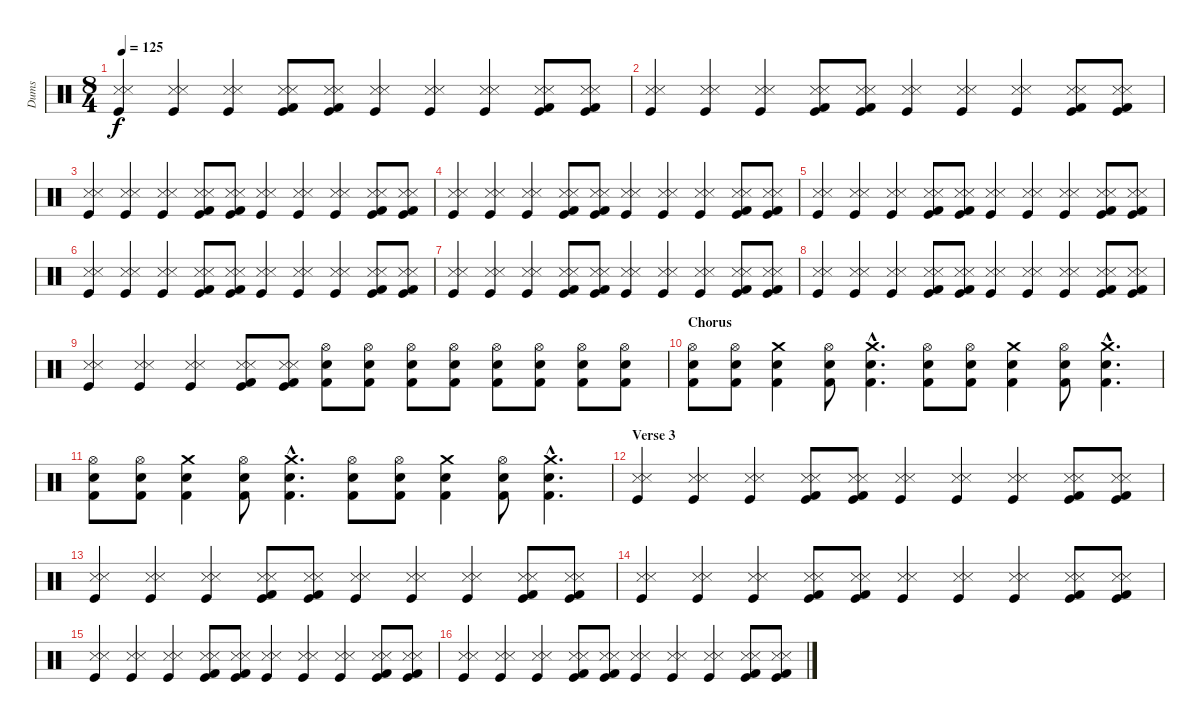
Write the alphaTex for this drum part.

\track ("Dums" "Dums") {instrument percussion}
\staff {score}
\articulation defaults
\ts (8 4)
\tempo 125
\clef neutral
\ks c
("Snare (side stick) 3" "Metronome (hit)" "Kick (hit)").4{dy f} ("Snare (side stick) 3" "Metronome (hit)" "Kick (hit)").4 ("Snare (side stick) 3" "Metronome (hit)" "Kick (hit)").4 ("Snare (side stick) 3" "Metronome (hit)" "Kick (hit)" "Kick (hit) 2").8 ("Snare (side stick) 3" "Metronome (hit)" "Kick (hit)" "Kick (hit) 2").8 ("Snare (side stick) 3" "Metronome (hit)" "Kick (hit)").4 ("Snare (side stick) 3" "Metronome (hit)" "Kick (hit)").4 ("Snare (side stick) 3" "Metronome (hit)" "Kick (hit)").4 ("Snare (side stick) 3" "Metronome (hit)" "Kick (hit)" "Kick (hit) 2").8 ("Snare (side stick) 3" "Metronome (hit)" "Kick (hit)" "Kick (hit) 2").8 |
("Snare (side stick) 3" "Metronome (hit)" "Kick (hit)").4 ("Snare (side stick) 3" "Metronome (hit)" "Kick (hit)").4 ("Snare (side stick) 3" "Metronome (hit)" "Kick (hit)").4 ("Snare (side stick) 3" "Metronome (hit)" "Kick (hit)" "Kick (hit) 2").8 ("Snare (side stick) 3" "Metronome (hit)" "Kick (hit)" "Kick (hit) 2").8 ("Snare (side stick) 3" "Metronome (hit)" "Kick (hit)").4 ("Snare (side stick) 3" "Metronome (hit)" "Kick (hit)").4 ("Snare (side stick) 3" "Metronome (hit)" "Kick (hit)").4 ("Snare (side stick) 3" "Metronome (hit)" "Kick (hit)" "Kick (hit) 2").8 ("Snare (side stick) 3" "Metronome (hit)" "Kick (hit)" "Kick (hit) 2").8 |
("Snare (side stick) 3" "Metronome (hit)" "Kick (hit)").4 ("Snare (side stick) 3" "Metronome (hit)" "Kick (hit)").4 ("Snare (side stick) 3" "Metronome (hit)" "Kick (hit)").4 ("Snare (side stick) 3" "Metronome (hit)" "Kick (hit)" "Kick (hit) 2").8 ("Snare (side stick) 3" "Metronome (hit)" "Kick (hit)" "Kick (hit) 2").8 ("Snare (side stick) 3" "Metronome (hit)" "Kick (hit)").4 ("Snare (side stick) 3" "Metronome (hit)" "Kick (hit)").4 ("Snare (side stick) 3" "Metronome (hit)" "Kick (hit)").4 ("Snare (side stick) 3" "Metronome (hit)" "Kick (hit)" "Kick (hit) 2").8 ("Snare (side stick) 3" "Metronome (hit)" "Kick (hit)" "Kick (hit) 2").8 |
("Snare (side stick) 3" "Metronome (hit)" "Kick (hit)").4 ("Snare (side stick) 3" "Metronome (hit)" "Kick (hit)").4 ("Snare (side stick) 3" "Metronome (hit)" "Kick (hit)").4 ("Snare (side stick) 3" "Metronome (hit)" "Kick (hit)" "Kick (hit) 2").8 ("Snare (side stick) 3" "Metronome (hit)" "Kick (hit)" "Kick (hit) 2").8 ("Snare (side stick) 3" "Metronome (hit)" "Kick (hit)").4 ("Snare (side stick) 3" "Metronome (hit)" "Kick (hit)").4 ("Snare (side stick) 3" "Metronome (hit)" "Kick (hit)").4 ("Snare (side stick) 3" "Metronome (hit)" "Kick (hit)" "Kick (hit) 2").8 ("Snare (side stick) 3" "Metronome (hit)" "Kick (hit)" "Kick (hit) 2").8 |
("Snare (side stick) 3" "Metronome (hit)" "Kick (hit)").4 ("Snare (side stick) 3" "Metronome (hit)" "Kick (hit)").4 ("Snare (side stick) 3" "Metronome (hit)" "Kick (hit)").4 ("Snare (side stick) 3" "Metronome (hit)" "Kick (hit)" "Kick (hit) 2").8 ("Snare (side stick) 3" "Metronome (hit)" "Kick (hit)" "Kick (hit) 2").8 ("Snare (side stick) 3" "Metronome (hit)" "Kick (hit)").4 ("Snare (side stick) 3" "Metronome (hit)" "Kick (hit)").4 ("Snare (side stick) 3" "Metronome (hit)" "Kick (hit)").4 ("Snare (side stick) 3" "Metronome (hit)" "Kick (hit)" "Kick (hit) 2").8 ("Snare (side stick) 3" "Metronome (hit)" "Kick (hit)" "Kick (hit) 2").8 |
("Snare (side stick) 3" "Metronome (hit)" "Kick (hit)").4 ("Snare (side stick) 3" "Metronome (hit)" "Kick (hit)").4 ("Snare (side stick) 3" "Metronome (hit)" "Kick (hit)").4 ("Snare (side stick) 3" "Metronome (hit)" "Kick (hit)" "Kick (hit) 2").8 ("Snare (side stick) 3" "Metronome (hit)" "Kick (hit)" "Kick (hit) 2").8 ("Snare (side stick) 3" "Metronome (hit)" "Kick (hit)").4 ("Snare (side stick) 3" "Metronome (hit)" "Kick (hit)").4 ("Snare (side stick) 3" "Metronome (hit)" "Kick (hit)").4 ("Snare (side stick) 3" "Metronome (hit)" "Kick (hit)" "Kick (hit) 2").8 ("Snare (side stick) 3" "Metronome (hit)" "Kick (hit)" "Kick (hit) 2").8 |
("Snare (side stick) 3" "Metronome (hit)" "Kick (hit)").4 ("Snare (side stick) 3" "Metronome (hit)" "Kick (hit)").4 ("Snare (side stick) 3" "Metronome (hit)" "Kick (hit)").4 ("Snare (side stick) 3" "Metronome (hit)" "Kick (hit)" "Kick (hit) 2").8 ("Snare (side stick) 3" "Metronome (hit)" "Kick (hit)" "Kick (hit) 2").8 ("Snare (side stick) 3" "Metronome (hit)" "Kick (hit)").4 ("Snare (side stick) 3" "Metronome (hit)" "Kick (hit)").4 ("Snare (side stick) 3" "Metronome (hit)" "Kick (hit)").4 ("Snare (side stick) 3" "Metronome (hit)" "Kick (hit)" "Kick (hit) 2").8 ("Snare (side stick) 3" "Metronome (hit)" "Kick (hit)" "Kick (hit) 2").8 |
("Snare (side stick) 3" "Metronome (hit)" "Kick (hit)").4 ("Snare (side stick) 3" "Metronome (hit)" "Kick (hit)").4 ("Snare (side stick) 3" "Metronome (hit)" "Kick (hit)").4 ("Snare (side stick) 3" "Metronome (hit)" "Kick (hit)" "Kick (hit) 2").8 ("Snare (side stick) 3" "Metronome (hit)" "Kick (hit)" "Kick (hit) 2").8 ("Snare (side stick) 3" "Metronome (hit)" "Kick (hit)").4 ("Snare (side stick) 3" "Metronome (hit)" "Kick (hit)").4 ("Snare (side stick) 3" "Metronome (hit)" "Kick (hit)").4 ("Snare (side stick) 3" "Metronome (hit)" "Kick (hit)" "Kick (hit) 2").8 ("Snare (side stick) 3" "Metronome (hit)" "Kick (hit)" "Kick (hit) 2").8 |
("Snare (side stick) 3" "Metronome (hit)" "Kick (hit)").4 ("Snare (side stick) 3" "Metronome (hit)" "Kick (hit)").4 ("Snare (side stick) 3" "Metronome (hit)" "Kick (hit)").4 ("Snare (side stick) 3" "Metronome (hit)" "Kick (hit)" "Kick (hit) 2").8 ("Snare (side stick) 3" "Metronome (hit)" "Kick (hit)" "Kick (hit) 2").8 ("Kick (hit) 2" "Electric Snare (hit)" "Hi-Hat (open)").8 ("Kick (hit) 2" "Electric Snare (hit)" "Hi-Hat (open)").8 ("Kick (hit) 2" "Electric Snare (hit)" "Hi-Hat (open)").8 ("Kick (hit) 2" "Electric Snare (hit)" "Hi-Hat (open)").8 ("Kick (hit) 2" "Electric Snare (hit)" "Hi-Hat (open)").8 ("Kick (hit) 2" "Electric Snare (hit)" "Hi-Hat (open)").8 ("Kick (hit) 2" "Electric Snare (hit)" "Hi-Hat (open)").8 ("Kick (hit) 2" "Electric Snare (hit)" "Hi-Hat (open)").8 |
\section ("" "Chorus")
("Kick (hit) 2" "Electric Snare (hit)" "Hi-Hat (open)").8 ("Kick (hit) 2" "Electric Snare (hit)" "Hi-Hat (open)").8 ("Kick (hit) 2" "Electric Snare (hit)" "Crash medium (hit)").4 ("Kick (hit) 2" "Electric Snare (hit)" "Hi-Hat (open)").8 ("Kick (hit) 2"{hac} "Electric Snare (hit)"{hac} "Crash medium (hit)"{hac}).4{d} ("Kick (hit) 2" "Electric Snare (hit)" "Hi-Hat (open)").8 ("Kick (hit) 2" "Electric Snare (hit)" "Hi-Hat (open)").8 ("Kick (hit) 2" "Electric Snare (hit)" "Crash medium (hit)").4 ("Kick (hit) 2" "Electric Snare (hit)" "Hi-Hat (open)").8 ("Kick (hit) 2"{hac} "Electric Snare (hit)"{hac} "Crash medium (hit)"{hac}).4{d} |
("Kick (hit) 2" "Electric Snare (hit)" "Hi-Hat (open)").8 ("Kick (hit) 2" "Electric Snare (hit)" "Hi-Hat (open)").8 ("Kick (hit) 2" "Electric Snare (hit)" "Crash medium (hit)").4 ("Kick (hit) 2" "Electric Snare (hit)" "Hi-Hat (open)").8 ("Kick (hit) 2"{hac} "Electric Snare (hit)"{hac} "Crash medium (hit)"{hac}).4{d} ("Kick (hit) 2" "Electric Snare (hit)" "Hi-Hat (open)").8 ("Kick (hit) 2" "Electric Snare (hit)" "Hi-Hat (open)").8 ("Kick (hit) 2" "Electric Snare (hit)" "Crash medium (hit)").4 ("Kick (hit) 2" "Electric Snare (hit)" "Hi-Hat (open)").8 ("Kick (hit) 2"{hac} "Electric Snare (hit)"{hac} "Crash medium (hit)"{hac}).4{d} |
\section ("" "Verse 3")
("Snare (side stick) 3" "Metronome (hit)" "Kick (hit)").4 ("Snare (side stick) 3" "Metronome (hit)" "Kick (hit)").4 ("Snare (side stick) 3" "Metronome (hit)" "Kick (hit)").4 ("Snare (side stick) 3" "Metronome (hit)" "Kick (hit)" "Kick (hit) 2").8 ("Snare (side stick) 3" "Metronome (hit)" "Kick (hit)" "Kick (hit) 2").8 ("Snare (side stick) 3" "Metronome (hit)" "Kick (hit)").4 ("Snare (side stick) 3" "Metronome (hit)" "Kick (hit)").4 ("Snare (side stick) 3" "Metronome (hit)" "Kick (hit)").4 ("Snare (side stick) 3" "Metronome (hit)" "Kick (hit)" "Kick (hit) 2").8 ("Snare (side stick) 3" "Metronome (hit)" "Kick (hit)" "Kick (hit) 2").8 |
("Snare (side stick) 3" "Metronome (hit)" "Kick (hit)").4 ("Snare (side stick) 3" "Metronome (hit)" "Kick (hit)").4 ("Snare (side stick) 3" "Metronome (hit)" "Kick (hit)").4 ("Snare (side stick) 3" "Metronome (hit)" "Kick (hit)" "Kick (hit) 2").8 ("Snare (side stick) 3" "Metronome (hit)" "Kick (hit)" "Kick (hit) 2").8 ("Snare (side stick) 3" "Metronome (hit)" "Kick (hit)").4 ("Snare (side stick) 3" "Metronome (hit)" "Kick (hit)").4 ("Snare (side stick) 3" "Metronome (hit)" "Kick (hit)").4 ("Snare (side stick) 3" "Metronome (hit)" "Kick (hit)" "Kick (hit) 2").8 ("Snare (side stick) 3" "Metronome (hit)" "Kick (hit)" "Kick (hit) 2").8 |
("Snare (side stick) 3" "Metronome (hit)" "Kick (hit)").4 ("Snare (side stick) 3" "Metronome (hit)" "Kick (hit)").4 ("Snare (side stick) 3" "Metronome (hit)" "Kick (hit)").4 ("Snare (side stick) 3" "Metronome (hit)" "Kick (hit)" "Kick (hit) 2").8 ("Snare (side stick) 3" "Metronome (hit)" "Kick (hit)" "Kick (hit) 2").8 ("Snare (side stick) 3" "Metronome (hit)" "Kick (hit)").4 ("Snare (side stick) 3" "Metronome (hit)" "Kick (hit)").4 ("Snare (side stick) 3" "Metronome (hit)" "Kick (hit)").4 ("Snare (side stick) 3" "Metronome (hit)" "Kick (hit)" "Kick (hit) 2").8 ("Snare (side stick) 3" "Metronome (hit)" "Kick (hit)" "Kick (hit) 2").8 |
("Snare (side stick) 3" "Metronome (hit)" "Kick (hit)").4 ("Snare (side stick) 3" "Metronome (hit)" "Kick (hit)").4 ("Snare (side stick) 3" "Metronome (hit)" "Kick (hit)").4 ("Snare (side stick) 3" "Metronome (hit)" "Kick (hit)" "Kick (hit) 2").8 ("Snare (side stick) 3" "Metronome (hit)" "Kick (hit)" "Kick (hit) 2").8 ("Snare (side stick) 3" "Metronome (hit)" "Kick (hit)").4 ("Snare (side stick) 3" "Metronome (hit)" "Kick (hit)").4 ("Snare (side stick) 3" "Metronome (hit)" "Kick (hit)").4 ("Snare (side stick) 3" "Metronome (hit)" "Kick (hit)" "Kick (hit) 2").8 ("Snare (side stick) 3" "Metronome (hit)" "Kick (hit)" "Kick (hit) 2").8 |
("Snare (side stick) 3" "Metronome (hit)" "Kick (hit)").4 ("Snare (side stick) 3" "Metronome (hit)" "Kick (hit)").4 ("Snare (side stick) 3" "Metronome (hit)" "Kick (hit)").4 ("Snare (side stick) 3" "Metronome (hit)" "Kick (hit)" "Kick (hit) 2").8 ("Snare (side stick) 3" "Metronome (hit)" "Kick (hit)" "Kick (hit) 2").8 ("Snare (side stick) 3" "Metronome (hit)" "Kick (hit)").4 ("Snare (side stick) 3" "Metronome (hit)" "Kick (hit)").4 ("Snare (side stick) 3" "Metronome (hit)" "Kick (hit)").4 ("Snare (side stick) 3" "Metronome (hit)" "Kick (hit)" "Kick (hit) 2").8 ("Snare (side stick) 3" "Metronome (hit)" "Kick (hit)" "Kick (hit) 2").8
